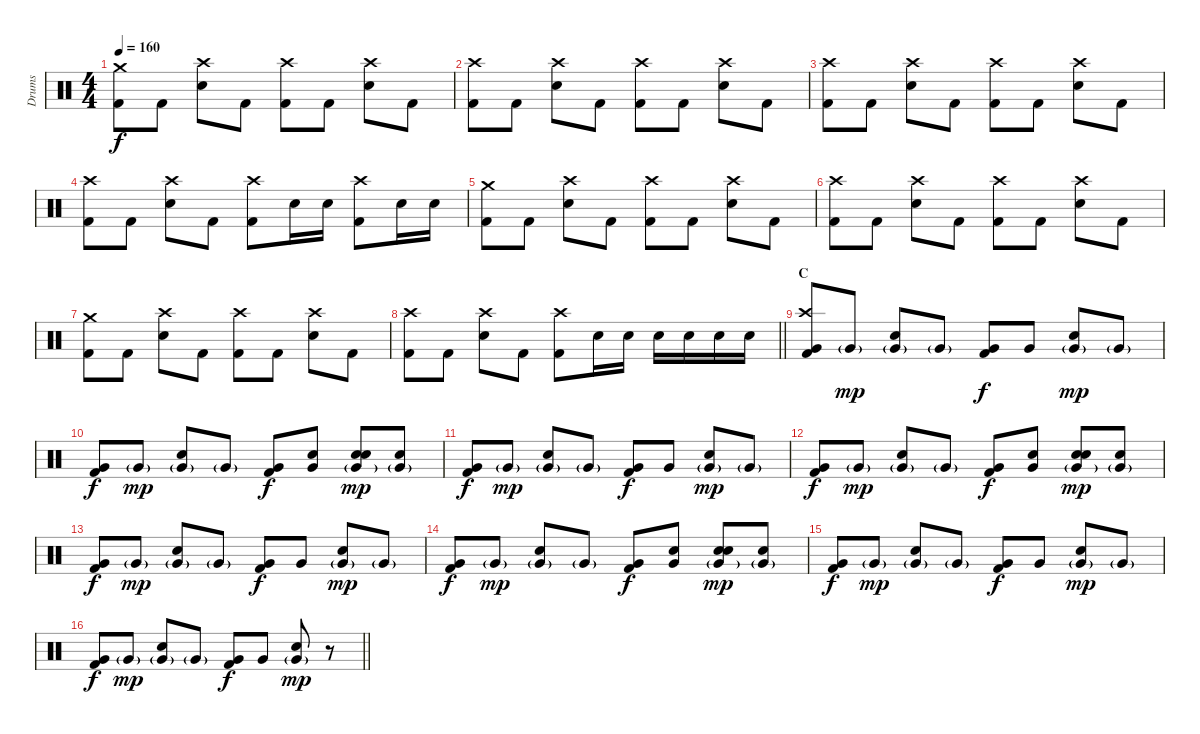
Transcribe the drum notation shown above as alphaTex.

\track ("Drums" "Drums") {instrument percussion}
\staff {score}
\articulation defaults
\ts (4 4)
\tempo 160
\clef neutral
\ks c
("Crash medium (hit)" "Kick (hit) 2").8{dy f} "Kick (hit) 2".8 ("Crash high (hit)" "Electric Snare (hit)").8 "Kick (hit) 2".8 ("Crash high (hit)" "Kick (hit) 2").8 "Kick (hit) 2".8 ("Crash high (hit)" "Electric Snare (hit)").8 "Kick (hit) 2".8 |
("Crash high (hit)" "Kick (hit) 2").8 "Kick (hit) 2".8 ("Crash high (hit)" "Electric Snare (hit)").8 "Kick (hit) 2".8 ("Crash high (hit)" "Kick (hit) 2").8 "Kick (hit) 2".8 ("Crash high (hit)" "Electric Snare (hit)").8 "Kick (hit) 2".8 |
("Crash high (hit)" "Kick (hit) 2").8 "Kick (hit) 2".8 ("Crash high (hit)" "Electric Snare (hit)").8 "Kick (hit) 2".8 ("Crash high (hit)" "Kick (hit) 2").8 "Kick (hit) 2".8 ("Crash high (hit)" "Electric Snare (hit)").8 "Kick (hit) 2".8 |
("Crash high (hit)" "Kick (hit) 2").8 "Kick (hit) 2".8 ("Crash high (hit)" "Electric Snare (hit)").8 "Kick (hit) 2".8 ("Crash high (hit)" "Kick (hit) 2").8 "Electric Snare (hit)".16 "Electric Snare (hit)".16 ("Crash high (hit)" "Kick (hit) 2").8 "Electric Snare (hit)".16 "Electric Snare (hit)".16 |
("Crash medium (hit)" "Kick (hit) 2").8 "Kick (hit) 2".8 ("Crash high (hit)" "Electric Snare (hit)").8 "Kick (hit) 2".8 ("Crash high (hit)" "Kick (hit) 2").8 "Kick (hit) 2".8 ("Crash high (hit)" "Electric Snare (hit)").8 "Kick (hit) 2".8 |
("Crash high (hit)" "Kick (hit) 2").8 "Kick (hit) 2".8 ("Crash high (hit)" "Electric Snare (hit)").8 "Kick (hit) 2".8 ("Crash high (hit)" "Kick (hit) 2").8 "Kick (hit) 2".8 ("Crash high (hit)" "Electric Snare (hit)").8 "Kick (hit) 2".8 |
("Crash medium (hit)" "Kick (hit) 2").8 "Kick (hit) 2".8 ("Crash high (hit)" "Electric Snare (hit)").8 "Kick (hit) 2".8 ("Crash high (hit)" "Kick (hit) 2").8 "Kick (hit) 2".8 ("Crash high (hit)" "Electric Snare (hit)").8 "Kick (hit) 2".8 |
\barLineRight lightlight
("Crash high (hit)" "Kick (hit) 2").8 "Kick (hit) 2".8 ("Crash high (hit)" "Electric Snare (hit)").8 "Kick (hit) 2".8 ("Crash high (hit)" "Kick (hit) 2").8 "Electric Snare (hit)".16 "Electric Snare (hit)".16 "Electric Snare (hit)".16 "Electric Snare (hit)".16 "Electric Snare (hit)".16 "Electric Snare (hit)".16 |
\section ("" "C")
("Crash high (hit)" "Very Low Tom (hit)" "Kick (hit) 2").8 "Very Low Tom (hit)"{g}.8{dy mp} ("Electric Snare (hit)" "Very Low Tom (hit)"{g}).8 "Very Low Tom (hit)"{g}.8 ("Very Low Tom (hit)" "Kick (hit) 2").8{dy f} "Very Low Tom (hit)".8 ("Electric Snare (hit)" "Very Low Tom (hit)"{g}).8{dy mp} "Very Low Tom (hit)"{g}.8 |
("Very Low Tom (hit)" "Kick (hit) 2").8{dy f} "Very Low Tom (hit)"{g}.8{dy mp} ("Electric Snare (hit)" "Very Low Tom (hit)"{g}).8 "Very Low Tom (hit)"{g}.8 ("Very Low Tom (hit)" "Kick (hit) 2").8{dy f} ("Hand Clap (hit)" "Very Low Tom (hit)").8 ("Hand Clap (hit)" "Electric Snare (hit)" "Very Low Tom (hit)"{g}).8{dy mp} ("Hand Clap (hit)" "Very Low Tom (hit)"{g}).8 |
("Very Low Tom (hit)" "Kick (hit) 2").8{dy f} "Very Low Tom (hit)"{g}.8{dy mp} ("Electric Snare (hit)" "Very Low Tom (hit)"{g}).8 "Very Low Tom (hit)"{g}.8 ("Very Low Tom (hit)" "Kick (hit) 2").8{dy f} "Very Low Tom (hit)".8 ("Electric Snare (hit)" "Very Low Tom (hit)"{g}).8{dy mp} "Very Low Tom (hit)"{g}.8 |
("Very Low Tom (hit)" "Kick (hit) 2").8{dy f} "Very Low Tom (hit)"{g}.8{dy mp} ("Electric Snare (hit)" "Very Low Tom (hit)"{g}).8 "Very Low Tom (hit)"{g}.8 ("Very Low Tom (hit)" "Kick (hit) 2").8{dy f} ("Hand Clap (hit)" "Very Low Tom (hit)").8 ("Hand Clap (hit)" "Electric Snare (hit)" "Very Low Tom (hit)"{g}).8{dy mp} ("Hand Clap (hit)" "Very Low Tom (hit)"{g}).8 |
("Very Low Tom (hit)" "Kick (hit) 2").8{dy f} "Very Low Tom (hit)"{g}.8{dy mp} ("Electric Snare (hit)" "Very Low Tom (hit)"{g}).8 "Very Low Tom (hit)"{g}.8 ("Very Low Tom (hit)" "Kick (hit) 2").8{dy f} "Very Low Tom (hit)".8 ("Electric Snare (hit)" "Very Low Tom (hit)"{g}).8{dy mp} "Very Low Tom (hit)"{g}.8 |
("Very Low Tom (hit)" "Kick (hit) 2").8{dy f} "Very Low Tom (hit)"{g}.8{dy mp} ("Electric Snare (hit)" "Very Low Tom (hit)"{g}).8 "Very Low Tom (hit)"{g}.8 ("Very Low Tom (hit)" "Kick (hit) 2").8{dy f} ("Hand Clap (hit)" "Very Low Tom (hit)").8 ("Hand Clap (hit)" "Electric Snare (hit)" "Very Low Tom (hit)"{g}).8{dy mp} ("Hand Clap (hit)" "Very Low Tom (hit)"{g}).8 |
("Very Low Tom (hit)" "Kick (hit) 2").8{dy f} "Very Low Tom (hit)"{g}.8{dy mp} ("Electric Snare (hit)" "Very Low Tom (hit)"{g}).8 "Very Low Tom (hit)"{g}.8 ("Very Low Tom (hit)" "Kick (hit) 2").8{dy f} "Very Low Tom (hit)".8 ("Electric Snare (hit)" "Very Low Tom (hit)"{g}).8{dy mp} "Very Low Tom (hit)"{g}.8 |
\barLineRight lightlight
("Very Low Tom (hit)" "Kick (hit) 2").8{dy f} "Very Low Tom (hit)"{g}.8{dy mp} ("Electric Snare (hit)" "Very Low Tom (hit)"{g}).8 "Very Low Tom (hit)"{g}.8 ("Very Low Tom (hit)" "Kick (hit) 2").8{dy f} "Very Low Tom (hit)".8 ("Electric Snare (hit)" "Very Low Tom (hit)"{g}).8{dy mp} r.8
